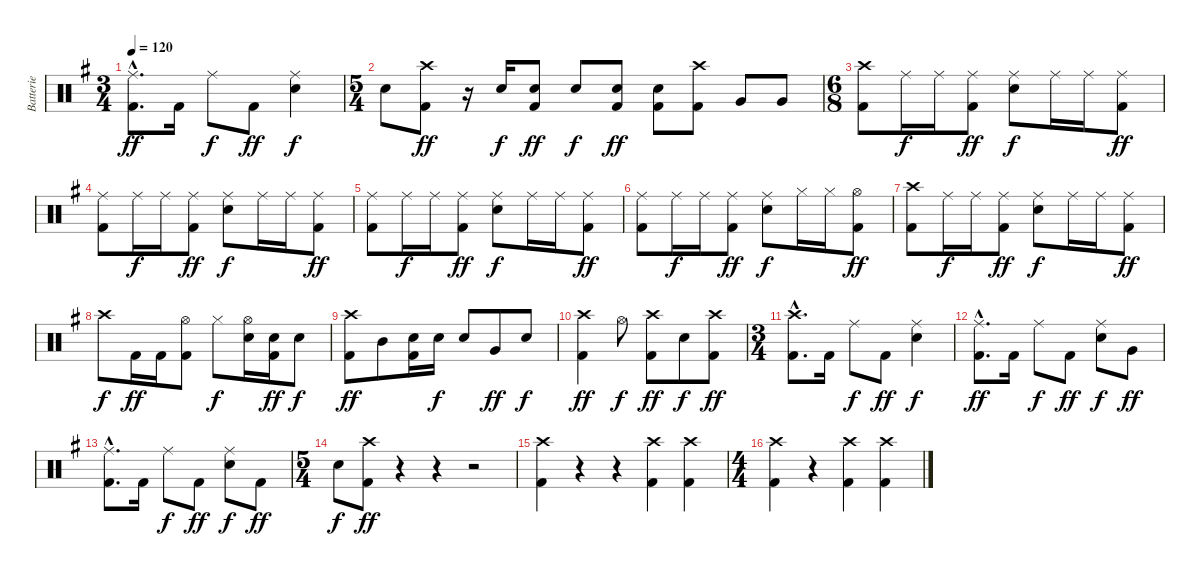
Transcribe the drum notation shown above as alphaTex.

\track ("Batterie" "Batterie") {instrument percussion}
\staff {score}
\articulation defaults
\ts (3 4)
\tempo 120
\clef neutral
\ks g
("Ride (middle)"{hac} "Kick (hit) 2"{hac}).8{d dy ff} "Kick (hit) 2".16 "Ride (middle)".8{dy f} "Kick (hit) 2".8{dy ff} ("Ride (middle)" "Snare (hit) 2").4{dy f} |
\ts (5 4)
"Snare (hit) 2".8 ("Crash high (hit)" "Kick (hit) 2").8{dy ff} r.16 "Snare (hit) 2".16{dy f} ("Snare (hit) 2" "Kick (hit) 2").8{dy ff} "Snare (hit) 2".8{dy f} ("Snare (hit) 2" "Kick (hit) 2").8{dy ff} ("Snare (hit) 2" "Kick (hit) 2").8 ("Crash high (hit)" "Kick (hit) 2").8 "Very Low Tom (hit)".8 "Very Low Tom (hit)".8 |
\ts (6 8)
("Crash high (hit)" "Kick (hit) 2").8 "Ride (middle)".16{dy f} "Ride (middle)".16 ("Ride (middle)" "Kick (hit) 2").8{dy ff} ("Ride (middle)" "Snare (hit) 2").8{dy f} "Ride (middle)".16 "Ride (middle)".16 ("Ride (middle)" "Kick (hit) 2").8{dy ff} |
("Ride (middle)" "Kick (hit) 2").8 "Ride (middle)".16{dy f} "Ride (middle)".16 ("Ride (middle)" "Kick (hit) 2").8{dy ff} ("Ride (middle)" "Snare (hit) 2").8{dy f} "Ride (middle)".16 "Ride (middle)".16 ("Ride (middle)" "Kick (hit) 2").8{dy ff} |
("Ride (middle)" "Kick (hit) 2").8 "Ride (middle)".16{dy f} "Ride (middle)".16 ("Ride (middle)" "Kick (hit) 2").8{dy ff} ("Ride (middle)" "Snare (hit) 2").8{dy f} "Ride (middle)".16 "Ride (middle)".16 ("Ride (middle)" "Kick (hit) 2").8{dy ff} |
("Ride (middle)" "Kick (hit) 2").8 "Ride (middle)".16{dy f} "Ride (middle)".16 ("Ride (middle)" "Kick (hit) 2").8{dy ff} ("Ride (middle)" "Snare (hit) 2").8{dy f} "Hi-Hat (closed)".16 "Hi-Hat (closed)".16 ("Hi-Hat (open)" "Kick (hit) 2").8{dy ff} |
("Crash high (hit)" "Kick (hit) 2").8 "Ride (middle)".16{dy f} "Ride (middle)".16 ("Ride (middle)" "Kick (hit) 2").8{dy ff} ("Ride (middle)" "Snare (hit) 2").8{dy f} "Ride (middle)".16 "Ride (middle)".16 ("Ride (middle)" "Kick (hit) 2").8{dy ff} |
"Crash high (hit)".8{dy f} "Kick (hit) 2".16{dy ff} "Kick (hit) 2".16 ("Hi-Hat (open)" "Kick (hit) 2").8 "Hi-Hat (closed)".8{dy f} ("Hi-Hat (open)" "Snare (hit) 2").16 ("Snare (hit) 2" "Kick (hit) 2").16{dy ff} "Snare (hit) 2".8{dy f} |
("Crash high (hit)" "Kick (hit) 2").8{dy ff} "Mid Tom (hit)".8 ("Snare (hit) 2" "Kick (hit) 2").16 "Snare (hit) 2".16{dy f} "Snare (hit) 2".8 "Very Low Tom (hit)".8{dy ff} "Snare (hit) 2".8{dy f} |
("Crash high (hit)" "Kick (hit) 2").4{dy ff} "Hi-Hat (open)".8{dy f} ("Crash high (hit)" "Kick (hit) 2").8{dy ff} "Snare (hit) 2".8{dy f} ("Crash high (hit)" "Kick (hit) 2").8{dy ff} |
\ts (3 4)
("Crash high (hit)"{hac} "Kick (hit) 2"{hac}).8{d} "Kick (hit) 2".16 "Ride (middle)".8{dy f} "Kick (hit) 2".8{dy ff} ("Ride (middle)" "Snare (hit) 2").4{dy f} |
("Ride (middle)"{hac} "Kick (hit) 2"{hac}).8{d dy ff} "Kick (hit) 2".16 "Ride (middle)".8{dy f} "Kick (hit) 2".8{dy ff} ("Ride (middle)" "Snare (hit) 2").8{dy f} "Very Low Tom (hit)".8{dy ff} |
("Ride (middle)"{hac} "Kick (hit) 2"{hac}).8{d} "Kick (hit) 2".16 "Ride (middle)".8{dy f} "Kick (hit) 2".8{dy ff} ("Ride (middle)" "Snare (hit) 2").8{dy f} "Kick (hit) 2".8{dy ff} |
\ts (5 4)
"Snare (hit) 2".8{dy f} ("Crash high (hit)" "Kick (hit) 2").8{dy ff} r.4 r.4 r.2 |
("Crash high (hit)" "Kick (hit) 2").4 r.4 r.4 ("Crash high (hit)" "Kick (hit) 2").4 ("Crash high (hit)" "Kick (hit) 2").4 |
\ts (4 4)
("Crash high (hit)" "Kick (hit) 2").4 r.4 ("Crash high (hit)" "Kick (hit) 2").4 ("Crash high (hit)" "Kick (hit) 2").4
